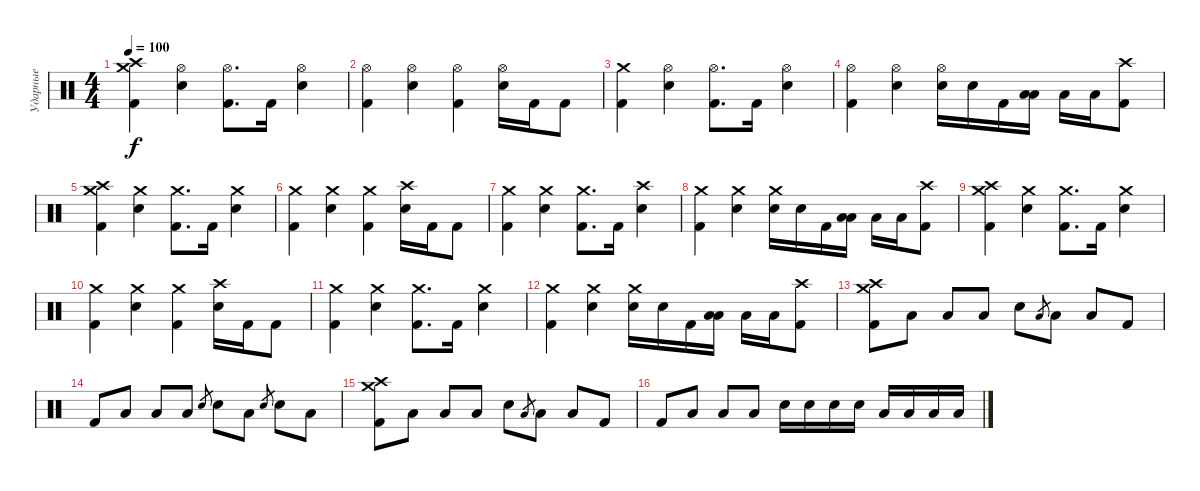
\track ("Ударные" "Ударные") {instrument percussion}
\staff {score}
\articulation defaults
\ts (4 4)
\tempo 100
\clef neutral
\ks c
("Crash medium (hit)" "Crash high (hit)" "Kick (hit) 2").4{dy f} ("Hi-Hat (open)" "Snare (hit) 2").4 ("Hi-Hat (open)" "Kick (hit) 2").8{d} "Kick (hit) 2".16 ("Hi-Hat (open)" "Snare (hit) 2").4 |
("Hi-Hat (open)" "Kick (hit) 2").4 ("Hi-Hat (open)" "Snare (hit) 2").4 ("Hi-Hat (open)" "Kick (hit) 2").4 ("Hi-Hat (open)" "Snare (hit) 2").16 "Kick (hit) 2".16 "Kick (hit) 2".8 |
("Crash medium (hit)" "Kick (hit) 2").4 ("Hi-Hat (open)" "Snare (hit) 2").4 ("Hi-Hat (open)" "Kick (hit) 2").8{d} "Kick (hit) 2".16 ("Hi-Hat (open)" "Snare (hit) 2").4 |
("Hi-Hat (open)" "Kick (hit) 2").4 ("Hi-Hat (open)" "Snare (hit) 2").4 ("Hi-Hat (open)" "Electric Snare (hit)").16 "Electric Snare (hit)".16 "Kick (hit) 2".16 ("Low Tom (hit)" "Low Floor Tom (hit)").16 "Low Floor Tom (hit)".16 "Low Floor Tom (hit)".16 ("Crash high (hit)" "Kick (hit) 2").8 |
("Crash medium (hit)" "Crash high (hit)" "Kick (hit) 2").4 ("Crash medium (hit)" "Snare (hit) 2").4 ("Crash medium (hit)" "Kick (hit) 2").8{d} "Kick (hit) 2".16 ("Crash medium (hit)" "Snare (hit) 2").4 |
("Crash medium (hit)" "Kick (hit) 2").4 ("Crash medium (hit)" "Snare (hit) 2").4 ("Crash medium (hit)" "Kick (hit) 2").4 ("Crash high (hit)" "Snare (hit) 2").16 "Kick (hit) 2".16 "Kick (hit) 2".8 |
("Crash medium (hit)" "Kick (hit) 2").4 ("Crash medium (hit)" "Snare (hit) 2").4 ("Crash medium (hit)" "Kick (hit) 2").8{d} "Kick (hit) 2".16 ("Crash high (hit)" "Snare (hit) 2").4 |
("Crash medium (hit)" "Kick (hit) 2").4 ("Crash medium (hit)" "Snare (hit) 2").4 ("Crash medium (hit)" "Electric Snare (hit)").16 "Electric Snare (hit)".16 "Kick (hit) 2".16 ("Low Tom (hit)" "Low Floor Tom (hit)").16 "Low Floor Tom (hit)".16 "Low Floor Tom (hit)".16 ("Crash high (hit)" "Kick (hit) 2").8 |
("Crash medium (hit)" "Crash high (hit)" "Kick (hit) 2").4 ("Crash medium (hit)" "Snare (hit) 2").4 ("Crash medium (hit)" "Kick (hit) 2").8{d} "Kick (hit) 2".16 ("Crash medium (hit)" "Snare (hit) 2").4 |
("Crash medium (hit)" "Kick (hit) 2").4 ("Crash medium (hit)" "Snare (hit) 2").4 ("Crash medium (hit)" "Kick (hit) 2").4 ("Crash high (hit)" "Snare (hit) 2").16 "Kick (hit) 2".16 "Kick (hit) 2".8 |
("Crash medium (hit)" "Kick (hit) 2").4 ("Crash medium (hit)" "Snare (hit) 2").4 ("Crash medium (hit)" "Kick (hit) 2").8{d} "Kick (hit) 2".16 ("Crash medium (hit)" "Snare (hit) 2").4 |
("Crash medium (hit)" "Kick (hit) 2").4 ("Crash medium (hit)" "Snare (hit) 2").4 ("Crash medium (hit)" "Electric Snare (hit)").16 "Electric Snare (hit)".16 "Kick (hit) 2".16 ("Low Tom (hit)" "Low Floor Tom (hit)").16 "Low Floor Tom (hit)".16 "Low Floor Tom (hit)".16 ("Crash high (hit)" "Kick (hit) 2").8 |
("Crash medium (hit)" "Crash high (hit)" "Kick (hit) 2").8 "Low Tom (hit)".8 "Low Floor Tom (hit)".8 "Low Tom (hit)".8 "Electric Snare (hit)".8 "Low Tom (hit)".8{gr} "Low Tom (hit)".8 "Low Floor Tom (hit)".8 "Kick (hit) 2".8 |
"Kick (hit) 2".8 "Low Tom (hit)".8 "Low Floor Tom (hit)".8 "Low Tom (hit)".8 "Electric Snare (hit)".8{gr} "Electric Snare (hit)".8 "Low Tom (hit)".8 "Electric Snare (hit)".8{gr} "Electric Snare (hit)".8 "Low Floor Tom (hit)".8 |
("Crash medium (hit)" "Crash high (hit)" "Kick (hit) 2").8 "Low Tom (hit)".8 "Low Floor Tom (hit)".8 "Low Tom (hit)".8 "Electric Snare (hit)".8 "Low Tom (hit)".8{gr} "Low Tom (hit)".8 "Low Floor Tom (hit)".8 "Kick (hit) 2".8 |
"Kick (hit) 2".8 "Low Tom (hit)".8 "Low Floor Tom (hit)".8 "Low Tom (hit)".8 "Electric Snare (hit)".16 "Electric Snare (hit)".16 "Electric Snare (hit)".16 "Electric Snare (hit)".16 "Low Tom (hit)".16 "Low Tom (hit)".16 "Low Floor Tom (hit)".16 "Low Floor Tom (hit)".16
